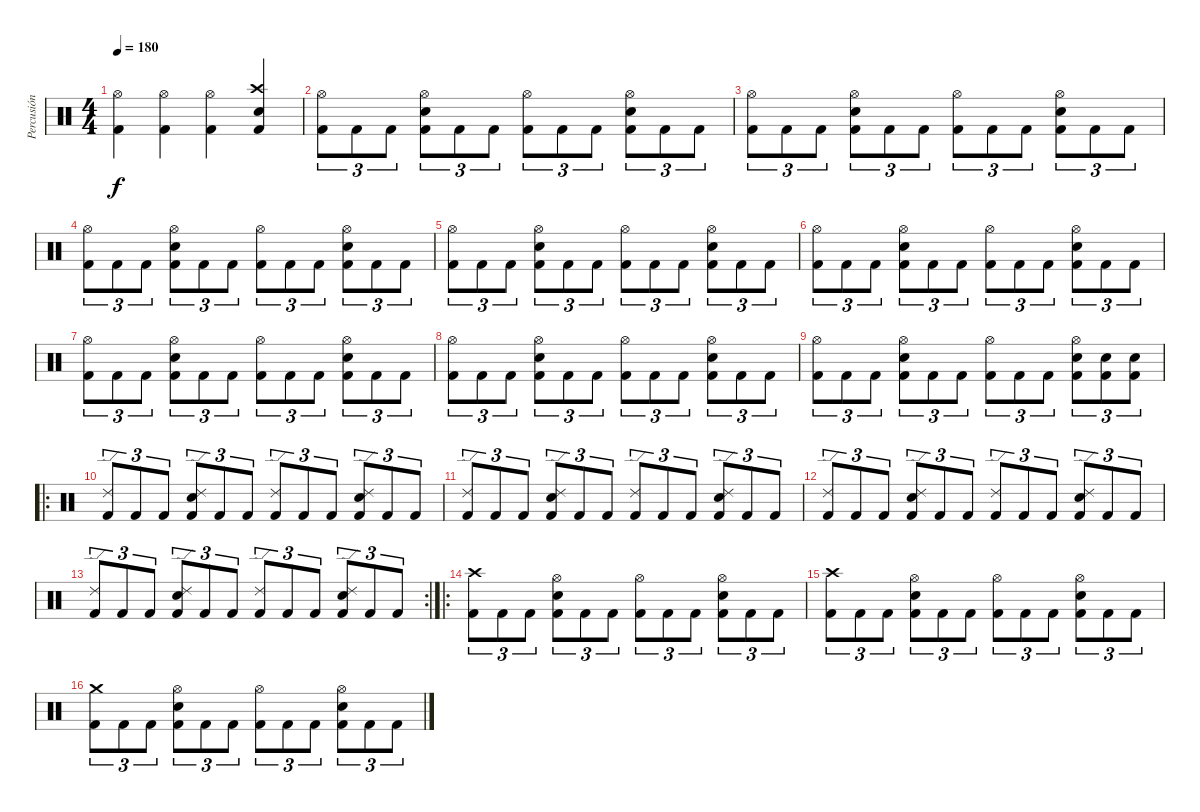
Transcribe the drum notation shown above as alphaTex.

\track ("Percusión" "Percusión") {instrument percussion}
\staff {score}
\articulation defaults
\ts (4 4)
\tempo 180
\clef neutral
\ks c
("Hi-Hat (open)" "Kick (hit) 2").4{dy f} ("Hi-Hat (open)" "Kick (hit) 2").4 ("Hi-Hat (open)" "Kick (hit) 2").4 ("Crash high (hit)" "Snare (hit) 2" "Kick (hit) 2").4 |
("Hi-Hat (open)" "Kick (hit) 2").8{tu (3 2)} "Kick (hit) 2".8{tu (3 2)} "Kick (hit) 2".8{tu (3 2)} ("Hi-Hat (open)" "Snare (hit) 2" "Kick (hit) 2").8{tu (3 2)} "Kick (hit) 2".8{tu (3 2)} "Kick (hit) 2".8{tu (3 2)} ("Hi-Hat (open)" "Kick (hit) 2").8{tu (3 2)} "Kick (hit) 2".8{tu (3 2)} "Kick (hit) 2".8{tu (3 2)} ("Hi-Hat (open)" "Snare (hit) 2" "Kick (hit) 2").8{tu (3 2)} "Kick (hit) 2".8{tu (3 2)} "Kick (hit) 2".8{tu (3 2)} |
("Hi-Hat (open)" "Kick (hit) 2").8{tu (3 2)} "Kick (hit) 2".8{tu (3 2)} "Kick (hit) 2".8{tu (3 2)} ("Hi-Hat (open)" "Snare (hit) 2" "Kick (hit) 2").8{tu (3 2)} "Kick (hit) 2".8{tu (3 2)} "Kick (hit) 2".8{tu (3 2)} ("Hi-Hat (open)" "Kick (hit) 2").8{tu (3 2)} "Kick (hit) 2".8{tu (3 2)} "Kick (hit) 2".8{tu (3 2)} ("Hi-Hat (open)" "Snare (hit) 2" "Kick (hit) 2").8{tu (3 2)} "Kick (hit) 2".8{tu (3 2)} "Kick (hit) 2".8{tu (3 2)} |
("Hi-Hat (open)" "Kick (hit) 2").8{tu (3 2)} "Kick (hit) 2".8{tu (3 2)} "Kick (hit) 2".8{tu (3 2)} ("Hi-Hat (open)" "Snare (hit) 2" "Kick (hit) 2").8{tu (3 2)} "Kick (hit) 2".8{tu (3 2)} "Kick (hit) 2".8{tu (3 2)} ("Hi-Hat (open)" "Kick (hit) 2").8{tu (3 2)} "Kick (hit) 2".8{tu (3 2)} "Kick (hit) 2".8{tu (3 2)} ("Hi-Hat (open)" "Snare (hit) 2" "Kick (hit) 2").8{tu (3 2)} "Kick (hit) 2".8{tu (3 2)} "Kick (hit) 2".8{tu (3 2)} |
("Hi-Hat (open)" "Kick (hit) 2").8{tu (3 2)} "Kick (hit) 2".8{tu (3 2)} "Kick (hit) 2".8{tu (3 2)} ("Hi-Hat (open)" "Snare (hit) 2" "Kick (hit) 2").8{tu (3 2)} "Kick (hit) 2".8{tu (3 2)} "Kick (hit) 2".8{tu (3 2)} ("Hi-Hat (open)" "Kick (hit) 2").8{tu (3 2)} "Kick (hit) 2".8{tu (3 2)} "Kick (hit) 2".8{tu (3 2)} ("Hi-Hat (open)" "Snare (hit) 2" "Kick (hit) 2").8{tu (3 2)} "Kick (hit) 2".8{tu (3 2)} "Kick (hit) 2".8{tu (3 2)} |
("Hi-Hat (open)" "Kick (hit) 2").8{tu (3 2)} "Kick (hit) 2".8{tu (3 2)} "Kick (hit) 2".8{tu (3 2)} ("Hi-Hat (open)" "Snare (hit) 2" "Kick (hit) 2").8{tu (3 2)} "Kick (hit) 2".8{tu (3 2)} "Kick (hit) 2".8{tu (3 2)} ("Hi-Hat (open)" "Kick (hit) 2").8{tu (3 2)} "Kick (hit) 2".8{tu (3 2)} "Kick (hit) 2".8{tu (3 2)} ("Hi-Hat (open)" "Snare (hit) 2" "Kick (hit) 2").8{tu (3 2)} "Kick (hit) 2".8{tu (3 2)} "Kick (hit) 2".8{tu (3 2)} |
("Hi-Hat (open)" "Kick (hit) 2").8{tu (3 2)} "Kick (hit) 2".8{tu (3 2)} "Kick (hit) 2".8{tu (3 2)} ("Hi-Hat (open)" "Snare (hit) 2" "Kick (hit) 2").8{tu (3 2)} "Kick (hit) 2".8{tu (3 2)} "Kick (hit) 2".8{tu (3 2)} ("Hi-Hat (open)" "Kick (hit) 2").8{tu (3 2)} "Kick (hit) 2".8{tu (3 2)} "Kick (hit) 2".8{tu (3 2)} ("Hi-Hat (open)" "Snare (hit) 2" "Kick (hit) 2").8{tu (3 2)} "Kick (hit) 2".8{tu (3 2)} "Kick (hit) 2".8{tu (3 2)} |
("Hi-Hat (open)" "Kick (hit) 2").8{tu (3 2)} "Kick (hit) 2".8{tu (3 2)} "Kick (hit) 2".8{tu (3 2)} ("Hi-Hat (open)" "Snare (hit) 2" "Kick (hit) 2").8{tu (3 2)} "Kick (hit) 2".8{tu (3 2)} "Kick (hit) 2".8{tu (3 2)} ("Hi-Hat (open)" "Kick (hit) 2").8{tu (3 2)} "Kick (hit) 2".8{tu (3 2)} "Kick (hit) 2".8{tu (3 2)} ("Hi-Hat (open)" "Snare (hit) 2" "Kick (hit) 2").8{tu (3 2)} "Kick (hit) 2".8{tu (3 2)} "Kick (hit) 2".8{tu (3 2)} |
("Hi-Hat (open)" "Kick (hit) 2").8{tu (3 2)} "Kick (hit) 2".8{tu (3 2)} "Kick (hit) 2".8{tu (3 2)} ("Hi-Hat (open)" "Snare (hit) 2" "Kick (hit) 2").8{tu (3 2)} "Kick (hit) 2".8{tu (3 2)} "Kick (hit) 2".8{tu (3 2)} ("Hi-Hat (open)" "Kick (hit) 2").8{tu (3 2)} "Kick (hit) 2".8{tu (3 2)} "Kick (hit) 2".8{tu (3 2)} ("Hi-Hat (open)" "Snare (hit) 2" "Kick (hit) 2").8{tu (3 2)} ("Snare (hit) 2" "Kick (hit) 2").8{tu (3 2)} ("Snare (hit) 2" "Kick (hit) 2").8{tu (3 2)} |
\ro
("Ride (edge) 2" "Kick (hit) 2").8{tu (3 2)} "Kick (hit) 2".8{tu (3 2)} "Kick (hit) 2".8{tu (3 2)} ("Ride (edge) 2" "Snare (hit) 2" "Kick (hit) 2").8{tu (3 2)} "Kick (hit) 2".8{tu (3 2)} "Kick (hit) 2".8{tu (3 2)} ("Ride (edge) 2" "Kick (hit) 2").8{tu (3 2)} "Kick (hit) 2".8{tu (3 2)} "Kick (hit) 2".8{tu (3 2)} ("Ride (edge) 2" "Snare (hit) 2" "Kick (hit) 2").8{tu (3 2)} "Kick (hit) 2".8{tu (3 2)} "Kick (hit) 2".8{tu (3 2)} |
("Ride (edge) 2" "Kick (hit) 2").8{tu (3 2)} "Kick (hit) 2".8{tu (3 2)} "Kick (hit) 2".8{tu (3 2)} ("Ride (edge) 2" "Snare (hit) 2" "Kick (hit) 2").8{tu (3 2)} "Kick (hit) 2".8{tu (3 2)} "Kick (hit) 2".8{tu (3 2)} ("Ride (edge) 2" "Kick (hit) 2").8{tu (3 2)} "Kick (hit) 2".8{tu (3 2)} "Kick (hit) 2".8{tu (3 2)} ("Ride (edge) 2" "Snare (hit) 2" "Kick (hit) 2").8{tu (3 2)} "Kick (hit) 2".8{tu (3 2)} "Kick (hit) 2".8{tu (3 2)} |
("Ride (edge) 2" "Kick (hit) 2").8{tu (3 2)} "Kick (hit) 2".8{tu (3 2)} "Kick (hit) 2".8{tu (3 2)} ("Ride (edge) 2" "Snare (hit) 2" "Kick (hit) 2").8{tu (3 2)} "Kick (hit) 2".8{tu (3 2)} "Kick (hit) 2".8{tu (3 2)} ("Ride (edge) 2" "Kick (hit) 2").8{tu (3 2)} "Kick (hit) 2".8{tu (3 2)} "Kick (hit) 2".8{tu (3 2)} ("Ride (edge) 2" "Snare (hit) 2" "Kick (hit) 2").8{tu (3 2)} "Kick (hit) 2".8{tu (3 2)} "Kick (hit) 2".8{tu (3 2)} |
\rc 2
("Ride (edge) 2" "Kick (hit) 2").8{tu (3 2)} "Kick (hit) 2".8{tu (3 2)} "Kick (hit) 2".8{tu (3 2)} ("Ride (edge) 2" "Snare (hit) 2" "Kick (hit) 2").8{tu (3 2)} "Kick (hit) 2".8{tu (3 2)} "Kick (hit) 2".8{tu (3 2)} ("Ride (edge) 2" "Kick (hit) 2").8{tu (3 2)} "Kick (hit) 2".8{tu (3 2)} "Kick (hit) 2".8{tu (3 2)} ("Ride (edge) 2" "Snare (hit) 2" "Kick (hit) 2").8{tu (3 2)} "Kick (hit) 2".8{tu (3 2)} "Kick (hit) 2".8{tu (3 2)} |
\ro
("Crash high (hit)" "Kick (hit) 2").8{tu (3 2)} "Kick (hit) 2".8{tu (3 2)} "Kick (hit) 2".8{tu (3 2)} ("Hi-Hat (open)" "Snare (hit) 2" "Kick (hit) 2").8{tu (3 2)} "Kick (hit) 2".8{tu (3 2)} "Kick (hit) 2".8{tu (3 2)} ("Hi-Hat (open)" "Kick (hit) 2").8{tu (3 2)} "Kick (hit) 2".8{tu (3 2)} "Kick (hit) 2".8{tu (3 2)} ("Hi-Hat (open)" "Snare (hit) 2" "Kick (hit) 2").8{tu (3 2)} "Kick (hit) 2".8{tu (3 2)} "Kick (hit) 2".8{tu (3 2)} |
("Crash high (hit)" "Kick (hit) 2").8{tu (3 2)} "Kick (hit) 2".8{tu (3 2)} "Kick (hit) 2".8{tu (3 2)} ("Hi-Hat (open)" "Snare (hit) 2" "Kick (hit) 2").8{tu (3 2)} "Kick (hit) 2".8{tu (3 2)} "Kick (hit) 2".8{tu (3 2)} ("Hi-Hat (open)" "Kick (hit) 2").8{tu (3 2)} "Kick (hit) 2".8{tu (3 2)} "Kick (hit) 2".8{tu (3 2)} ("Hi-Hat (open)" "Snare (hit) 2" "Kick (hit) 2").8{tu (3 2)} "Kick (hit) 2".8{tu (3 2)} "Kick (hit) 2".8{tu (3 2)} |
("Crash medium (hit)" "Kick (hit) 2").8{tu (3 2)} "Kick (hit) 2".8{tu (3 2)} "Kick (hit) 2".8{tu (3 2)} ("Hi-Hat (open)" "Snare (hit) 2" "Kick (hit) 2").8{tu (3 2)} "Kick (hit) 2".8{tu (3 2)} "Kick (hit) 2".8{tu (3 2)} ("Hi-Hat (open)" "Kick (hit) 2").8{tu (3 2)} "Kick (hit) 2".8{tu (3 2)} "Kick (hit) 2".8{tu (3 2)} ("Hi-Hat (open)" "Snare (hit) 2" "Kick (hit) 2").8{tu (3 2)} "Kick (hit) 2".8{tu (3 2)} "Kick (hit) 2".8{tu (3 2)}
